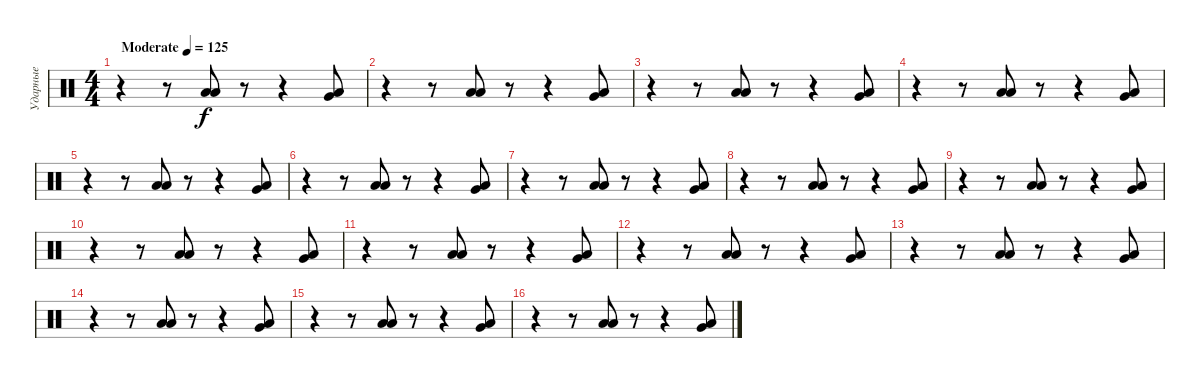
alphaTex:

\track ("Ударные" "Ударные") {instrument percussion}
\staff {score}
\articulation defaults
\ts (4 4)
\tempo (125 "Moderate")
\clef neutral
\ks c
r.4{dy f} r.8 ("Low Floor Tom (hit)" "Low Floor Tom (hit)").8 r.8 r.4 ("Very Low Tom (hit)" "Low Floor Tom (hit)").8 |
r.4 r.8 ("Low Floor Tom (hit)" "Low Floor Tom (hit)").8 r.8 r.4 ("Very Low Tom (hit)" "Low Floor Tom (hit)").8 |
r.4 r.8 ("Low Floor Tom (hit)" "Low Floor Tom (hit)").8 r.8 r.4 ("Very Low Tom (hit)" "Low Floor Tom (hit)").8 |
r.4 r.8 ("Low Floor Tom (hit)" "Low Floor Tom (hit)").8 r.8 r.4 ("Very Low Tom (hit)" "Low Floor Tom (hit)").8 |
r.4 r.8 ("Low Floor Tom (hit)" "Low Floor Tom (hit)").8 r.8 r.4 ("Very Low Tom (hit)" "Low Floor Tom (hit)").8 |
r.4 r.8 ("Low Floor Tom (hit)" "Low Floor Tom (hit)").8 r.8 r.4 ("Very Low Tom (hit)" "Low Floor Tom (hit)").8 |
r.4 r.8 ("Low Floor Tom (hit)" "Low Floor Tom (hit)").8 r.8 r.4 ("Very Low Tom (hit)" "Low Floor Tom (hit)").8 |
r.4 r.8 ("Low Floor Tom (hit)" "Low Floor Tom (hit)").8 r.8 r.4 ("Very Low Tom (hit)" "Low Floor Tom (hit)").8 |
r.4 r.8 ("Low Floor Tom (hit)" "Low Floor Tom (hit)").8 r.8 r.4 ("Very Low Tom (hit)" "Low Floor Tom (hit)").8 |
r.4 r.8 ("Low Floor Tom (hit)" "Low Floor Tom (hit)").8 r.8 r.4 ("Very Low Tom (hit)" "Low Floor Tom (hit)").8 |
r.4 r.8 ("Low Floor Tom (hit)" "Low Floor Tom (hit)").8 r.8 r.4 ("Very Low Tom (hit)" "Low Floor Tom (hit)").8 |
r.4 r.8 ("Low Floor Tom (hit)" "Low Floor Tom (hit)").8 r.8 r.4 ("Very Low Tom (hit)" "Low Floor Tom (hit)").8 |
r.4 r.8 ("Low Floor Tom (hit)" "Low Floor Tom (hit)").8 r.8 r.4 ("Very Low Tom (hit)" "Low Floor Tom (hit)").8 |
r.4 r.8 ("Low Floor Tom (hit)" "Low Floor Tom (hit)").8 r.8 r.4 ("Very Low Tom (hit)" "Low Floor Tom (hit)").8 |
r.4 r.8 ("Low Floor Tom (hit)" "Low Floor Tom (hit)").8 r.8 r.4 ("Very Low Tom (hit)" "Low Floor Tom (hit)").8 |
r.4 r.8 ("Low Floor Tom (hit)" "Low Floor Tom (hit)").8 r.8 r.4 ("Very Low Tom (hit)" "Low Floor Tom (hit)").8
